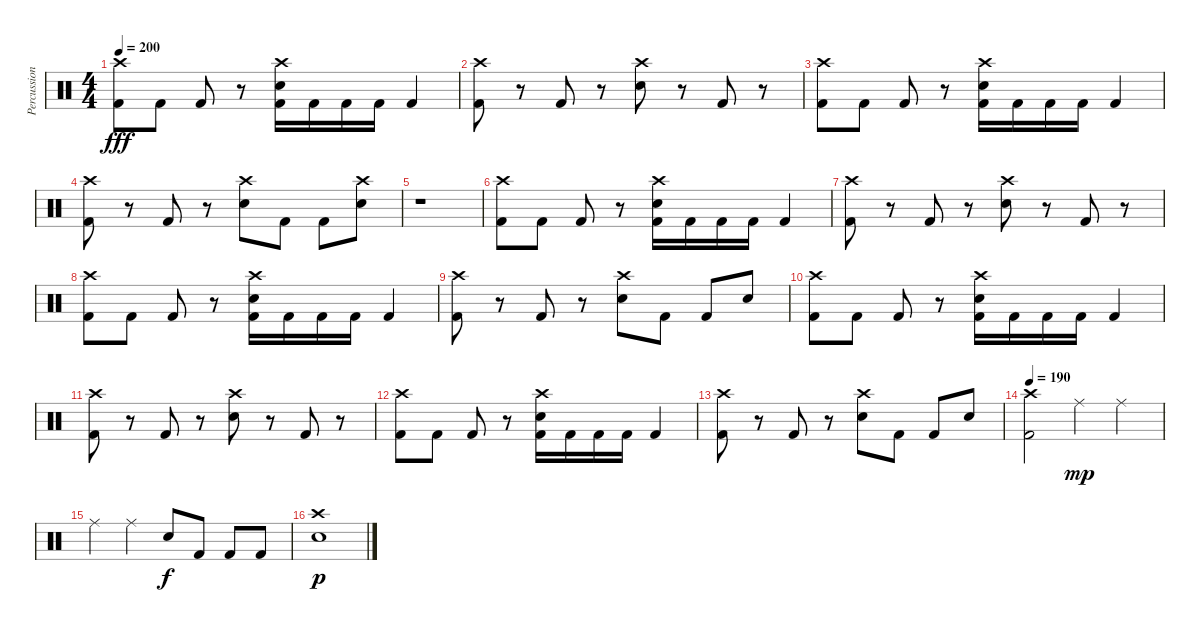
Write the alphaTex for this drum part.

\track ("Percussion" "Percussion") {instrument percussion}
\staff {score}
\articulation defaults
\ts (4 4)
\tempo 200
\clef neutral
\ks c
("Crash high (hit)" "Kick (hit) 2").8{dy fff} "Kick (hit) 2".8 "Kick (hit) 2".8 r.8 ("Crash high (hit)" "Electric Snare (hit)" "Kick (hit) 2").16 "Kick (hit) 2".16 "Kick (hit) 2".16 "Kick (hit) 2".16 "Kick (hit) 2".4 |
("Crash high (hit)" "Kick (hit) 2").8 r.8 "Kick (hit) 2".8 r.8 ("Crash high (hit)" "Electric Snare (hit)").8 r.8 "Kick (hit) 2".8 r.8 |
("Crash high (hit)" "Kick (hit) 2").8 "Kick (hit) 2".8 "Kick (hit) 2".8 r.8 ("Crash high (hit)" "Electric Snare (hit)" "Kick (hit) 2").16 "Kick (hit) 2".16 "Kick (hit) 2".16 "Kick (hit) 2".16 "Kick (hit) 2".4 |
("Crash high (hit)" "Kick (hit) 2").8 r.8 "Kick (hit) 2".8 r.8 ("Crash high (hit)" "Electric Snare (hit)").8 "Kick (hit) 2".8 "Kick (hit) 2".8 ("Crash high (hit)" "Electric Snare (hit)").8 |
r.1 |
("Crash high (hit)" "Kick (hit) 2").8 "Kick (hit) 2".8 "Kick (hit) 2".8 r.8 ("Crash high (hit)" "Electric Snare (hit)" "Kick (hit) 2").16 "Kick (hit) 2".16 "Kick (hit) 2".16 "Kick (hit) 2".16 "Kick (hit) 2".4 |
("Crash high (hit)" "Kick (hit) 2").8 r.8 "Kick (hit) 2".8 r.8 ("Crash high (hit)" "Electric Snare (hit)").8 r.8 "Kick (hit) 2".8 r.8 |
("Crash high (hit)" "Kick (hit) 2").8 "Kick (hit) 2".8 "Kick (hit) 2".8 r.8 ("Crash high (hit)" "Electric Snare (hit)" "Kick (hit) 2").16 "Kick (hit) 2".16 "Kick (hit) 2".16 "Kick (hit) 2".16 "Kick (hit) 2".4 |
("Crash high (hit)" "Kick (hit) 2").8 r.8 "Kick (hit) 2".8 r.8 ("Crash high (hit)" "Electric Snare (hit)").8 "Kick (hit) 2".8 "Kick (hit) 2".8 "Electric Snare (hit)".8 |
("Crash high (hit)" "Kick (hit) 2").8 "Kick (hit) 2".8 "Kick (hit) 2".8 r.8 ("Crash high (hit)" "Electric Snare (hit)" "Kick (hit) 2").16 "Kick (hit) 2".16 "Kick (hit) 2".16 "Kick (hit) 2".16 "Kick (hit) 2".4 |
("Crash high (hit)" "Kick (hit) 2").8 r.8 "Kick (hit) 2".8 r.8 ("Crash high (hit)" "Electric Snare (hit)").8 r.8 "Kick (hit) 2".8 r.8 |
("Crash high (hit)" "Kick (hit) 2").8 "Kick (hit) 2".8 "Kick (hit) 2".8 r.8 ("Crash high (hit)" "Electric Snare (hit)" "Kick (hit) 2").16 "Kick (hit) 2".16 "Kick (hit) 2".16 "Kick (hit) 2".16 "Kick (hit) 2".4 |
("Crash high (hit)" "Kick (hit) 2").8 r.8 "Kick (hit) 2".8 r.8 ("Crash high (hit)" "Electric Snare (hit)").8 "Kick (hit) 2".8 "Kick (hit) 2".8 "Electric Snare (hit)".8 |
\tempo 190
("Crash high (hit)" "Kick (hit) 2").2 "Ride (middle)".4{dy mp} "Ride (middle)".4 |
"Ride (middle)".4 "Ride (middle)".4 "Electric Snare (hit)".8{dy f} "Kick (hit) 2".8 "Kick (hit) 2".8 "Kick (hit) 2".8 |
("Crash high (hit)" "Electric Snare (hit)").1{dy p}
